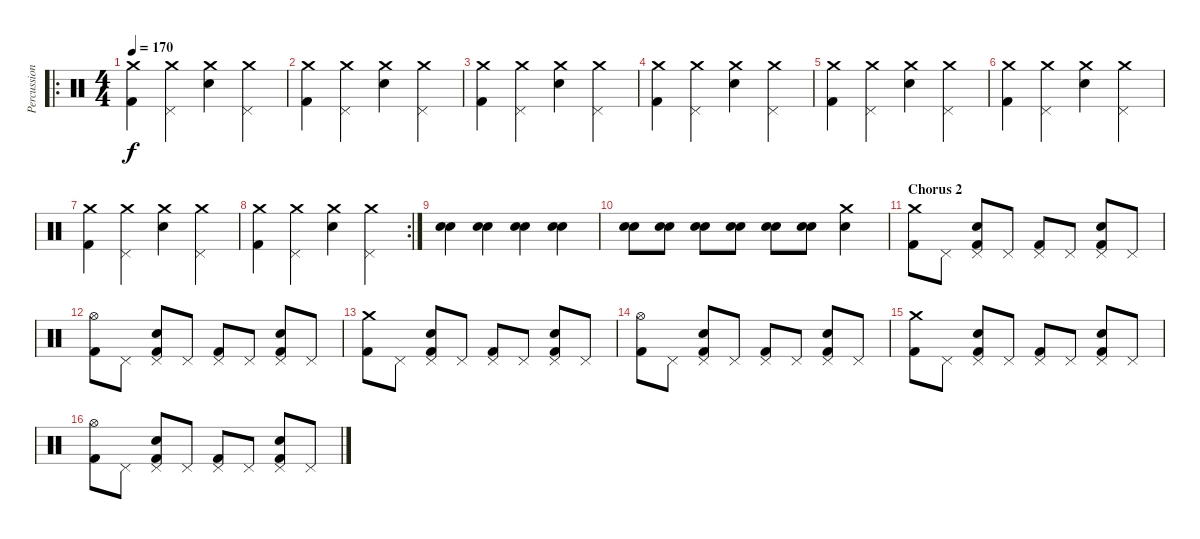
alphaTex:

\track ("Percussion" "Percussion") {instrument percussion}
\staff {score}
\articulation defaults
\ro
\ts (4 4)
\tempo 170
\clef neutral
\ks c
("Crash medium (hit)" "Kick (hit) 2").4{dy f} ("Crash medium (hit)" "Pedal Hi-Hat (hit)").4 ("Crash medium (hit)" "Electric Snare (hit)").4 ("Crash medium (hit)" "Pedal Hi-Hat (hit)").4 |
("Crash medium (hit)" "Kick (hit) 2").4 ("Crash medium (hit)" "Pedal Hi-Hat (hit)").4 ("Crash medium (hit)" "Electric Snare (hit)").4 ("Crash medium (hit)" "Pedal Hi-Hat (hit)").4 |
("Crash medium (hit)" "Kick (hit) 2").4 ("Crash medium (hit)" "Pedal Hi-Hat (hit)").4 ("Crash medium (hit)" "Electric Snare (hit)").4 ("Crash medium (hit)" "Pedal Hi-Hat (hit)").4 |
("Crash medium (hit)" "Kick (hit) 2").4 ("Crash medium (hit)" "Pedal Hi-Hat (hit)").4 ("Crash medium (hit)" "Electric Snare (hit)").4 ("Crash medium (hit)" "Pedal Hi-Hat (hit)").4 |
("Crash medium (hit)" "Kick (hit) 2").4 ("Crash medium (hit)" "Pedal Hi-Hat (hit)").4 ("Crash medium (hit)" "Electric Snare (hit)").4 ("Crash medium (hit)" "Pedal Hi-Hat (hit)").4 |
("Crash medium (hit)" "Kick (hit) 2").4 ("Crash medium (hit)" "Pedal Hi-Hat (hit)").4 ("Crash medium (hit)" "Electric Snare (hit)").4 ("Crash medium (hit)" "Pedal Hi-Hat (hit)").4 |
("Crash medium (hit)" "Kick (hit) 2").4 ("Crash medium (hit)" "Pedal Hi-Hat (hit)").4 ("Crash medium (hit)" "Electric Snare (hit)").4 ("Crash medium (hit)" "Pedal Hi-Hat (hit)").4 |
\rc 2
("Crash medium (hit)" "Kick (hit) 2").4 ("Crash medium (hit)" "Pedal Hi-Hat (hit)").4 ("Crash medium (hit)" "Electric Snare (hit)").4 ("Crash medium (hit)" "Pedal Hi-Hat (hit)").4 |
("Electric Snare (hit)" "Electric Snare (hit)").4 ("Electric Snare (hit)" "Electric Snare (hit)").4 ("Electric Snare (hit)" "Electric Snare (hit)").4 ("Electric Snare (hit)" "Electric Snare (hit)").4 |
("Electric Snare (hit)" "Electric Snare (hit)").8 ("Electric Snare (hit)" "Electric Snare (hit)").8 ("Electric Snare (hit)" "Electric Snare (hit)").8 ("Electric Snare (hit)" "Electric Snare (hit)").8 ("Electric Snare (hit)" "Electric Snare (hit)").8 ("Electric Snare (hit)" "Electric Snare (hit)").8 ("Crash medium (hit)" "Electric Snare (hit)").4 |
\section ("" "Chorus 2")
("Crash medium (hit)" "Kick (hit) 2").8 "Pedal Hi-Hat (hit)".8 ("Pedal Hi-Hat (hit)" "Electric Snare (hit)" "Kick (hit) 2").8 "Pedal Hi-Hat (hit)".8 ("Pedal Hi-Hat (hit)" "Kick (hit) 2").8 "Pedal Hi-Hat (hit)".8 ("Pedal Hi-Hat (hit)" "Electric Snare (hit)" "Kick (hit) 2").8 "Pedal Hi-Hat (hit)".8 |
("Hi-Hat (open)" "Kick (hit) 2").8 "Pedal Hi-Hat (hit)".8 ("Pedal Hi-Hat (hit)" "Electric Snare (hit)" "Kick (hit) 2").8 "Pedal Hi-Hat (hit)".8 ("Pedal Hi-Hat (hit)" "Kick (hit) 2").8 "Pedal Hi-Hat (hit)".8 ("Pedal Hi-Hat (hit)" "Electric Snare (hit)" "Kick (hit) 2").8 "Pedal Hi-Hat (hit)".8 |
("Crash medium (hit)" "Kick (hit) 2").8 "Pedal Hi-Hat (hit)".8 ("Pedal Hi-Hat (hit)" "Electric Snare (hit)" "Kick (hit) 2").8 "Pedal Hi-Hat (hit)".8 ("Pedal Hi-Hat (hit)" "Kick (hit) 2").8 "Pedal Hi-Hat (hit)".8 ("Pedal Hi-Hat (hit)" "Electric Snare (hit)" "Kick (hit) 2").8 "Pedal Hi-Hat (hit)".8 |
("Hi-Hat (open)" "Kick (hit) 2").8 "Pedal Hi-Hat (hit)".8 ("Pedal Hi-Hat (hit)" "Electric Snare (hit)" "Kick (hit) 2").8 "Pedal Hi-Hat (hit)".8 ("Pedal Hi-Hat (hit)" "Kick (hit) 2").8 "Pedal Hi-Hat (hit)".8 ("Pedal Hi-Hat (hit)" "Electric Snare (hit)" "Kick (hit) 2").8 "Pedal Hi-Hat (hit)".8 |
("Crash medium (hit)" "Kick (hit) 2").8 "Pedal Hi-Hat (hit)".8 ("Pedal Hi-Hat (hit)" "Electric Snare (hit)" "Kick (hit) 2").8 "Pedal Hi-Hat (hit)".8 ("Pedal Hi-Hat (hit)" "Kick (hit) 2").8 "Pedal Hi-Hat (hit)".8 ("Pedal Hi-Hat (hit)" "Electric Snare (hit)" "Kick (hit) 2").8 "Pedal Hi-Hat (hit)".8 |
("Hi-Hat (open)" "Kick (hit) 2").8 "Pedal Hi-Hat (hit)".8 ("Pedal Hi-Hat (hit)" "Electric Snare (hit)" "Kick (hit) 2").8 "Pedal Hi-Hat (hit)".8 ("Pedal Hi-Hat (hit)" "Kick (hit) 2").8 "Pedal Hi-Hat (hit)".8 ("Pedal Hi-Hat (hit)" "Electric Snare (hit)" "Kick (hit) 2").8 "Pedal Hi-Hat (hit)".8
